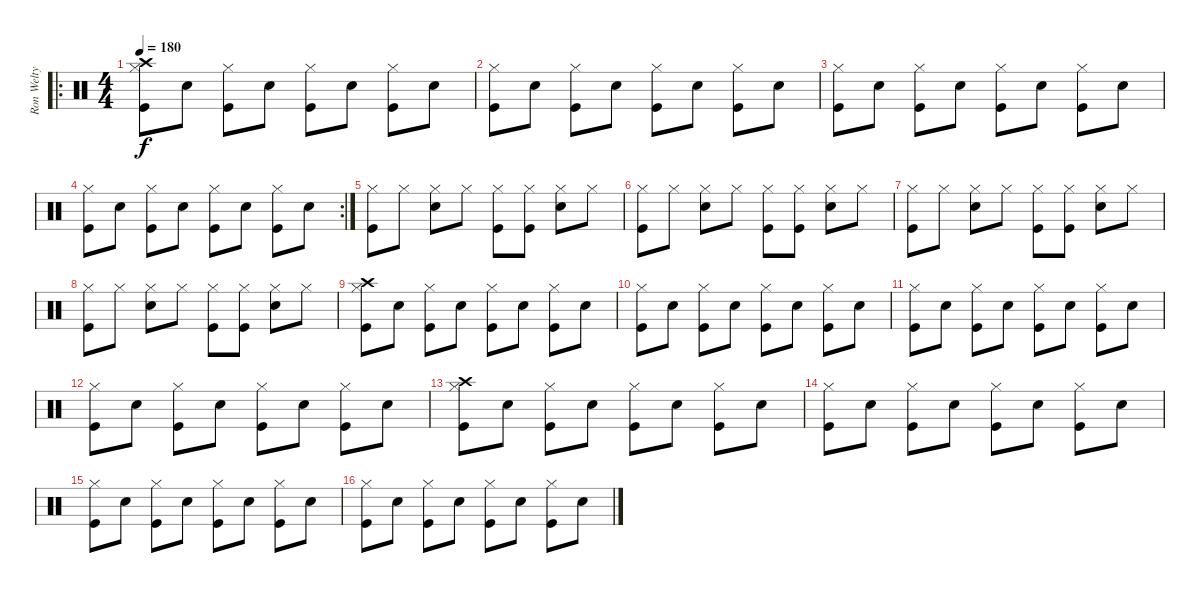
\track ("Ron Welty (Drums)" "Ron Welty ") {instrument percussion}
\staff {score}
\articulation defaults
\ro
\ts (4 4)
\tempo 180
\clef neutral
\ks c
("Crash high (hit)" "Hi-Hat (closed)" "Kick (hit)").8{dy f} "Electric Snare (hit)".8 ("Hi-Hat (closed)" "Kick (hit)").8 "Electric Snare (hit)".8 ("Hi-Hat (closed)" "Kick (hit)").8 "Electric Snare (hit)".8 ("Hi-Hat (closed)" "Kick (hit)").8 "Electric Snare (hit)".8 |
("Hi-Hat (closed)" "Kick (hit)").8 "Electric Snare (hit)".8 ("Hi-Hat (closed)" "Kick (hit)").8 "Electric Snare (hit)".8 ("Hi-Hat (closed)" "Kick (hit)").8 "Electric Snare (hit)".8 ("Hi-Hat (closed)" "Kick (hit)").8 "Electric Snare (hit)".8 |
("Hi-Hat (closed)" "Kick (hit)").8 "Electric Snare (hit)".8 ("Hi-Hat (closed)" "Kick (hit)").8 "Electric Snare (hit)".8 ("Hi-Hat (closed)" "Kick (hit)").8 "Electric Snare (hit)".8 ("Hi-Hat (closed)" "Kick (hit)").8 "Electric Snare (hit)".8 |
\rc 2
("Hi-Hat (closed)" "Kick (hit)").8 "Electric Snare (hit)".8 ("Hi-Hat (closed)" "Kick (hit)").8 "Electric Snare (hit)".8 ("Hi-Hat (closed)" "Kick (hit)").8 "Electric Snare (hit)".8 ("Hi-Hat (closed)" "Kick (hit)").8 "Electric Snare (hit)".8 |
("Hi-Hat (closed)" "Kick (hit)").8 "Hi-Hat (closed)".8 ("Electric Snare (hit)" "Hi-Hat (closed)").8 "Hi-Hat (closed)".8 ("Hi-Hat (closed)" "Kick (hit)").8 ("Hi-Hat (closed)" "Kick (hit)").8 ("Electric Snare (hit)" "Hi-Hat (closed)").8 "Hi-Hat (closed)".8 |
("Hi-Hat (closed)" "Kick (hit)").8 "Hi-Hat (closed)".8 ("Electric Snare (hit)" "Hi-Hat (closed)").8 "Hi-Hat (closed)".8 ("Hi-Hat (closed)" "Kick (hit)").8 ("Hi-Hat (closed)" "Kick (hit)").8 ("Electric Snare (hit)" "Hi-Hat (closed)").8 "Hi-Hat (closed)".8 |
("Hi-Hat (closed)" "Kick (hit)").8 "Hi-Hat (closed)".8 ("Electric Snare (hit)" "Hi-Hat (closed)").8 "Hi-Hat (closed)".8 ("Hi-Hat (closed)" "Kick (hit)").8 ("Hi-Hat (closed)" "Kick (hit)").8 ("Electric Snare (hit)" "Hi-Hat (closed)").8 "Hi-Hat (closed)".8 |
("Hi-Hat (closed)" "Kick (hit)").8 "Hi-Hat (closed)".8 ("Electric Snare (hit)" "Hi-Hat (closed)").8 "Hi-Hat (closed)".8 ("Hi-Hat (closed)" "Kick (hit)").8 ("Hi-Hat (closed)" "Kick (hit)").8 ("Electric Snare (hit)" "Hi-Hat (closed)").8 "Hi-Hat (closed)".8 |
("Crash high (hit)" "Hi-Hat (closed)" "Kick (hit)").8 "Electric Snare (hit)".8 ("Hi-Hat (closed)" "Kick (hit)").8 "Electric Snare (hit)".8 ("Hi-Hat (closed)" "Kick (hit)").8 "Electric Snare (hit)".8 ("Hi-Hat (closed)" "Kick (hit)").8 "Electric Snare (hit)".8 |
("Hi-Hat (closed)" "Kick (hit)").8 "Electric Snare (hit)".8 ("Hi-Hat (closed)" "Kick (hit)").8 "Electric Snare (hit)".8 ("Hi-Hat (closed)" "Kick (hit)").8 "Electric Snare (hit)".8 ("Hi-Hat (closed)" "Kick (hit)").8 "Electric Snare (hit)".8 |
("Hi-Hat (closed)" "Kick (hit)").8 "Electric Snare (hit)".8 ("Hi-Hat (closed)" "Kick (hit)").8 "Electric Snare (hit)".8 ("Hi-Hat (closed)" "Kick (hit)").8 "Electric Snare (hit)".8 ("Hi-Hat (closed)" "Kick (hit)").8 "Electric Snare (hit)".8 |
("Hi-Hat (closed)" "Kick (hit)").8 "Electric Snare (hit)".8 ("Hi-Hat (closed)" "Kick (hit)").8 "Electric Snare (hit)".8 ("Hi-Hat (closed)" "Kick (hit)").8 "Electric Snare (hit)".8 ("Hi-Hat (closed)" "Kick (hit)").8 "Electric Snare (hit)".8 |
("Crash high (hit)" "Hi-Hat (closed)" "Kick (hit)").8 "Electric Snare (hit)".8 ("Hi-Hat (closed)" "Kick (hit)").8 "Electric Snare (hit)".8 ("Hi-Hat (closed)" "Kick (hit)").8 "Electric Snare (hit)".8 ("Hi-Hat (closed)" "Kick (hit)").8 "Electric Snare (hit)".8 |
("Hi-Hat (closed)" "Kick (hit)").8 "Electric Snare (hit)".8 ("Hi-Hat (closed)" "Kick (hit)").8 "Electric Snare (hit)".8 ("Hi-Hat (closed)" "Kick (hit)").8 "Electric Snare (hit)".8 ("Hi-Hat (closed)" "Kick (hit)").8 "Electric Snare (hit)".8 |
("Hi-Hat (closed)" "Kick (hit)").8 "Electric Snare (hit)".8 ("Hi-Hat (closed)" "Kick (hit)").8 "Electric Snare (hit)".8 ("Hi-Hat (closed)" "Kick (hit)").8 "Electric Snare (hit)".8 ("Hi-Hat (closed)" "Kick (hit)").8 "Electric Snare (hit)".8 |
("Hi-Hat (closed)" "Kick (hit)").8 "Electric Snare (hit)".8 ("Hi-Hat (closed)" "Kick (hit)").8 "Electric Snare (hit)".8 ("Hi-Hat (closed)" "Kick (hit)").8 "Electric Snare (hit)".8 ("Hi-Hat (closed)" "Kick (hit)").8 "Electric Snare (hit)".8
